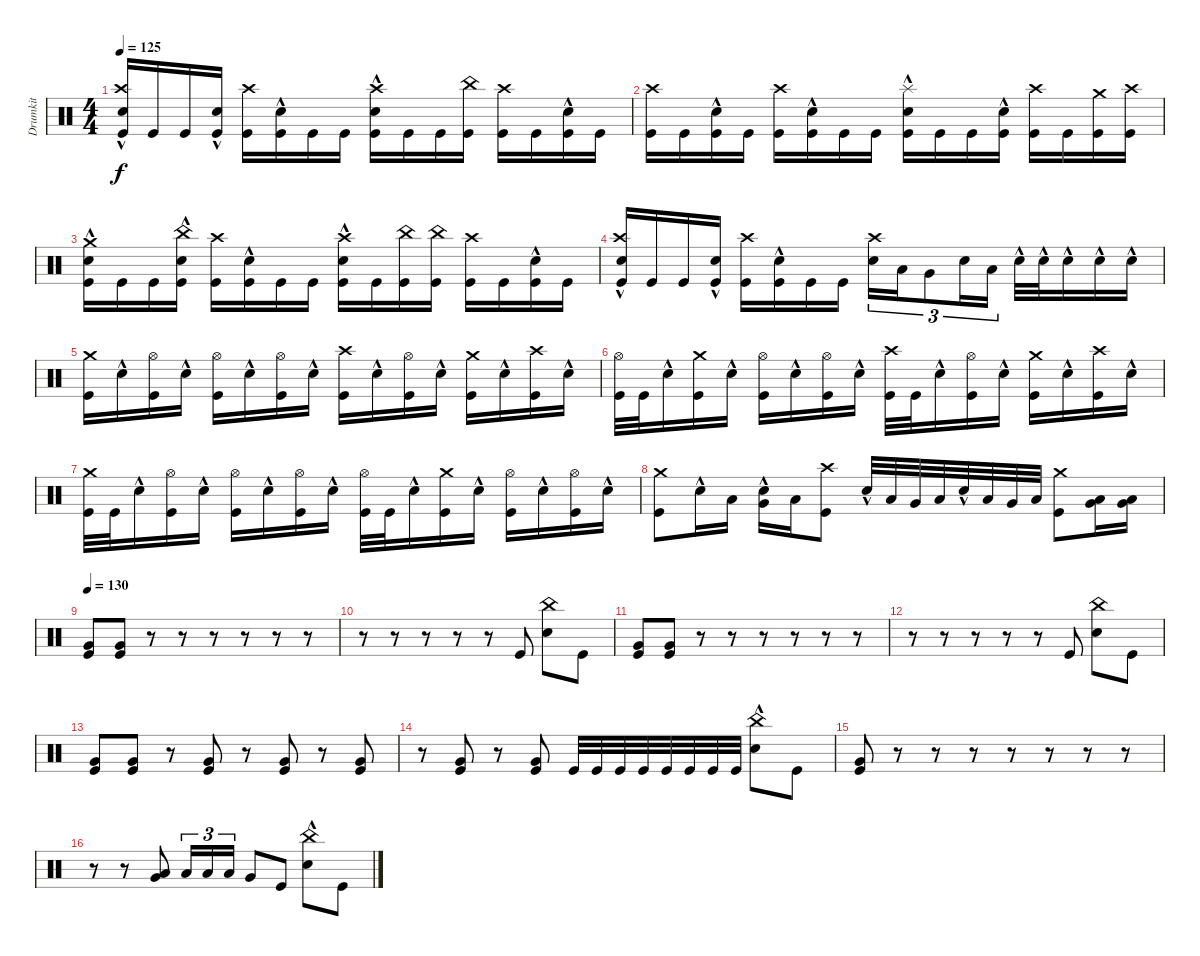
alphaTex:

\track ("Drumkit" "Drumkit") {instrument percussion}
\staff {score}
\articulation defaults
\ts (4 4)
\tempo 125
\clef neutral
\ks c
("Snare (hit) 2"{hac} "Crash high (hit)" "Kick (hit)").16{dy f} "Kick (hit)".16 "Kick (hit)".16 ("Snare (hit) 2"{hac} "Kick (hit)").16 ("Crash high (hit)" "Kick (hit)").16 ("Snare (hit) 2"{hac} "Kick (hit)").16 "Kick (hit)".16 "Kick (hit)".16 ("Crash high (hit)" "Snare (hit) 2"{hac} "Kick (hit)").16 "Kick (hit)".16 "Kick (hit)".16 ("Kick (hit)" "China (hit)").16 ("Crash high (hit)" "Kick (hit)").16 "Kick (hit)".16 ("Kick (hit)" "Snare (hit) 2"{hac}).16 "Kick (hit)".16 |
("Kick (hit)" "Crash high (hit)").16 "Kick (hit)".16 ("Snare (hit) 2"{hac} "Kick (hit)").16 "Kick (hit)".16 ("Kick (hit)" "Crash high (hit)").16 ("Snare (hit) 2"{hac} "Kick (hit)").16 "Kick (hit)".16 "Kick (hit)".16 ("Snare (hit) 2"{hac} "Kick (hit)" "Splash (hit)").16 "Kick (hit)".16 "Kick (hit)".16 ("Snare (hit) 2"{hac} "Kick (hit)").16 ("Kick (hit)" "Crash high (hit)").16 "Kick (hit)".16 ("Kick (hit)" "Crash medium (hit)").16 ("Kick (hit)" "Crash high (hit)").16 |
("Snare (hit) 2"{hac} "Kick (hit)" "Crash medium (hit)").16 "Kick (hit)".16 "Kick (hit)".16 ("Snare (hit) 2"{hac} "Kick (hit)" "China (hit)").16 ("Crash high (hit)" "Kick (hit)").16 ("Snare (hit) 2"{hac} "Kick (hit)").16 "Kick (hit)".16 "Kick (hit)".16 ("Crash high (hit)" "Snare (hit) 2"{hac} "Kick (hit)").16 "Kick (hit)".16 ("Kick (hit)" "China (hit)").16 ("Kick (hit)" "China (hit)").16 ("Crash high (hit)" "Kick (hit)").16 "Kick (hit)".16 ("Kick (hit)" "Snare (hit) 2"{hac}).16 "Kick (hit)".16 |
("Snare (hit) 2"{hac} "Crash high (hit)" "Kick (hit)").16 "Kick (hit)".16 "Kick (hit)".16 ("Snare (hit) 2"{hac} "Kick (hit)").16 ("Crash high (hit)" "Kick (hit)").16 ("Snare (hit) 2"{hac} "Kick (hit)").16 "Kick (hit)".16 "Kick (hit)".16 ("Snare (hit) 2" "Crash high (hit)").16{tu (3 2)} "Low Tom (hit)".16{tu (3 2)} "Very Low Tom (hit)".8{tu (3 2)} "Snare (hit) 2".16{tu (3 2)} "Low Tom (hit)".16{tu (3 2)} "Snare (hit) 2"{hac}.32 "Snare (hit) 2"{hac}.32 "Snare (hit) 2"{hac}.16 "Snare (hit) 2"{hac}.16 "Snare (hit) 2"{hac}.16 |
("Kick (hit)" "Crash medium (hit)").16 "Snare (hit) 2"{hac}.16 ("Hi-Hat (open)" "Kick (hit)").16 "Snare (hit) 2"{hac}.16 ("Hi-Hat (open)" "Kick (hit)").16 "Snare (hit) 2"{hac}.16 ("Kick (hit)" "Hi-Hat (open)").16 "Snare (hit) 2"{hac}.16 ("Kick (hit)" "Crash high (hit)").16 "Snare (hit) 2"{hac}.16 ("Hi-Hat (open)" "Kick (hit)").16 "Snare (hit) 2"{hac}.16 ("Kick (hit)" "Crash medium (hit)").16 "Snare (hit) 2"{hac}.16 ("Kick (hit)" "Crash high (hit)").16 "Snare (hit) 2"{hac}.16 |
("Kick (hit)" "Hi-Hat (open)").32 "Kick (hit)".32 "Snare (hit) 2"{hac}.16 ("Kick (hit)" "Crash medium (hit)").16 "Snare (hit) 2"{hac}.16 ("Hi-Hat (open)" "Kick (hit)").16 "Snare (hit) 2"{hac}.16 ("Kick (hit)" "Hi-Hat (open)").16 "Snare (hit) 2"{hac}.16 ("Kick (hit)" "Crash high (hit)").32 "Kick (hit)".32 "Snare (hit) 2"{hac}.16 ("Hi-Hat (open)" "Kick (hit)").16 "Snare (hit) 2"{hac}.16 ("Kick (hit)" "Crash medium (hit)").16 "Snare (hit) 2"{hac}.16 ("Kick (hit)" "Crash high (hit)").16 "Snare (hit) 2"{hac}.16 |
("Kick (hit)" "Crash medium (hit)").32 "Kick (hit)".32 "Snare (hit) 2"{hac}.16 ("Hi-Hat (open)" "Kick (hit)").16 "Snare (hit) 2"{hac}.16 ("Hi-Hat (open)" "Kick (hit)").16 "Snare (hit) 2"{hac}.16 ("Kick (hit)" "Hi-Hat (open)").16 "Snare (hit) 2"{hac}.16 ("Kick (hit)" "Hi-Hat (open)").32 "Kick (hit)".32 "Snare (hit) 2"{hac}.16 ("Kick (hit)" "Crash medium (hit)").16 "Snare (hit) 2"{hac}.16 ("Kick (hit)" "Hi-Hat (open)").16 "Snare (hit) 2"{hac}.16 ("Kick (hit)" "Hi-Hat (open)").16 "Snare (hit) 2"{hac}.16 |
("Kick (hit)" "Crash medium (hit)").8 "Snare (hit) 2"{hac}.16 "Low Tom (hit)".16 ("Very Low Tom (hit)" "Snare (hit) 2"{hac}).16 "Low Tom (hit)".16 ("Kick (hit)" "Crash high (hit)").8 "Snare (hit) 2"{hac}.32 "Low Tom (hit)".32 "Very Low Tom (hit)".32 "Low Floor Tom (hit)".32 "Snare (hit) 2"{hac}.32 "Low Tom (hit)".32 "Very Low Tom (hit)".32 "Low Floor Tom (hit)".32 ("Kick (hit)" "Crash medium (hit)").8 ("Low Tom (hit)" "Very Low Tom (hit)").16 ("Very Low Tom (hit)" "Low Floor Tom (hit)").16 |
\tempo 130
("Very Low Tom (hit)" "Kick (hit)").8 ("Very Low Tom (hit)" "Kick (hit)").8 r.8 r.8 r.8 r.8 r.8 r.8 |
r.8 r.8 r.8 r.8 r.8 "Kick (hit)".8 ("Snare (hit) 2" "China (hit)").8 "Kick (hit)".8 |
("Kick (hit)" "Very Low Tom (hit)").8 ("Kick (hit)" "Very Low Tom (hit)").8 r.8 r.8 r.8 r.8 r.8 r.8 |
r.8 r.8 r.8 r.8 r.8 "Kick (hit)".8 ("Snare (hit) 2" "China (hit)").8 "Kick (hit)".8 |
("Kick (hit)" "Very Low Tom (hit)").8 ("Kick (hit)" "Very Low Tom (hit)").8 r.8 ("Kick (hit)" "Very Low Tom (hit)").8 r.8 ("Kick (hit)" "Very Low Tom (hit)").8 r.8 ("Kick (hit)" "Very Low Tom (hit)").8 |
r.8 ("Kick (hit)" "Very Low Tom (hit)").8 r.8 ("Kick (hit)" "Very Low Tom (hit)").8 "Kick (hit)".32 "Kick (hit)".32 "Kick (hit)".32 "Kick (hit)".32 "Kick (hit)".32 "Kick (hit)".32 "Kick (hit)".32 "Kick (hit)".32 ("Snare (hit) 2"{hac} "China (hit)").8 "Kick (hit)".8 |
("Kick (hit)" "Very Low Tom (hit)").8 r.8 r.8 r.8 r.8 r.8 r.8 r.8 |
r.8 r.8 ("Very Low Tom (hit)" "Low Tom (hit)").8 "Low Tom (hit)".16{tu (3 2)} "Low Tom (hit)".16{tu (3 2)} "Low Tom (hit)".16{tu (3 2)} "Very Low Tom (hit)".8 "Kick (hit)".8 ("Snare (hit) 2"{hac} "China (hit)").8 "Kick (hit)".8
